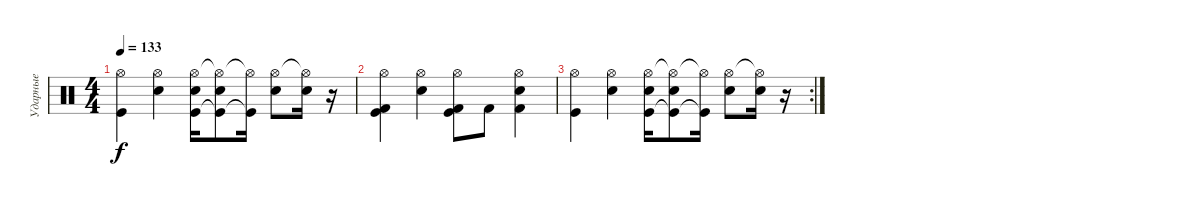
\track ("Ударные" "Ударные") {instrument percussion}
\staff {score}
\articulation defaults
\ts (4 4)
\tempo 133
\clef neutral
\ks c
("Hi-Hat (open)" "Kick (hit)").4{dy f} ("Hi-Hat (open)" "Snare (hit) 2").4 ("Hi-Hat (open)" "Kick (hit)" "Snare (hit) 2").16 ("Hi-Hat (open)"{t} "Kick (hit)"{t} "Snare (hit) 2").8 ("Hi-Hat (open)"{t} "Kick (hit)"{t}).16 ("Hi-Hat (open)" "Snare (hit) 2").8 ("Hi-Hat (open)"{t} "Snare (hit) 2").16 r.16 |
("Hi-Hat (open)" "Kick (hit) 2" "Kick (hit)").4 ("Hi-Hat (open)" "Snare (hit) 2").4 ("Hi-Hat (open)" "Kick (hit) 2" "Kick (hit)").8 "Kick (hit) 2".8 ("Hi-Hat (open)" "Kick (hit) 2" "Snare (hit) 2").4 |
\rc 2
("Hi-Hat (open)" "Kick (hit)").4 ("Hi-Hat (open)" "Snare (hit) 2").4 ("Hi-Hat (open)" "Kick (hit)" "Snare (hit) 2").16 ("Hi-Hat (open)"{t} "Kick (hit)"{t} "Snare (hit) 2").8 ("Hi-Hat (open)"{t} "Kick (hit)"{t}).16 ("Hi-Hat (open)" "Snare (hit) 2").8 ("Hi-Hat (open)"{t} "Snare (hit) 2").16 r.16
